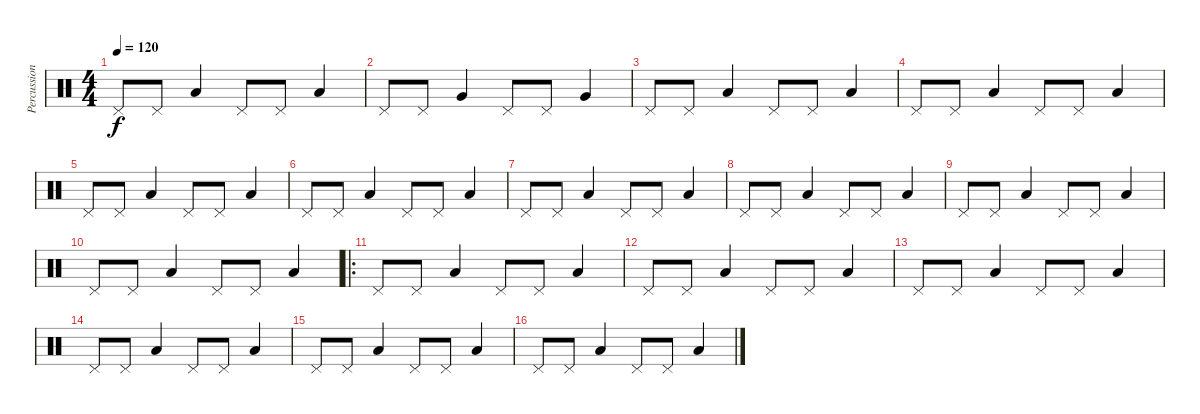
\track ("Percussions" "Percussion") {instrument percussion}
\staff {score}
\articulation defaults
\ts (4 4)
\tempo 120
\clef neutral
\ks c "Pedal Hi-Hat (hit)".8{dy f} "Pedal Hi-Hat (hit)".8 "Low Tom (hit)".4 "Pedal Hi-Hat (hit)".8 "Pedal Hi-Hat (hit)".8 "Low Tom (hit)".4
|
"Pedal Hi-Hat (hit)".8 "Pedal Hi-Hat (hit)".8 "Very Low Tom (hit)".4 "Pedal Hi-Hat (hit)".8 "Pedal Hi-Hat (hit)".8 "Very Low Tom (hit)".4 |
"Pedal Hi-Hat (hit)".8 "Pedal Hi-Hat (hit)".8 "Low Tom (hit)".4 "Pedal Hi-Hat (hit)".8 "Pedal Hi-Hat (hit)".8 "Low Tom (hit)".4 |
"Pedal Hi-Hat (hit)".8 "Pedal Hi-Hat (hit)".8 "Low Tom (hit)".4 "Pedal Hi-Hat (hit)".8 "Pedal Hi-Hat (hit)".8 "Low Tom (hit)".4 |
"Pedal Hi-Hat (hit)".8 "Pedal Hi-Hat (hit)".8 "Low Tom (hit)".4 "Pedal Hi-Hat (hit)".8 "Pedal Hi-Hat (hit)".8 "Low Tom (hit)".4 |
"Pedal Hi-Hat (hit)".8 "Pedal Hi-Hat (hit)".8 "Low Tom (hit)".4 "Pedal Hi-Hat (hit)".8 "Pedal Hi-Hat (hit)".8 "Low Tom (hit)".4 |
"Pedal Hi-Hat (hit)".8 "Pedal Hi-Hat (hit)".8 "Low Tom (hit)".4 "Pedal Hi-Hat (hit)".8 "Pedal Hi-Hat (hit)".8 "Low Tom (hit)".4 |
"Pedal Hi-Hat (hit)".8 "Pedal Hi-Hat (hit)".8 "Low Tom (hit)".4 "Pedal Hi-Hat (hit)".8 "Pedal Hi-Hat (hit)".8 "Low Tom (hit)".4 |
"Pedal Hi-Hat (hit)".8 "Pedal Hi-Hat (hit)".8 "Low Tom (hit)".4 "Pedal Hi-Hat (hit)".8 "Pedal Hi-Hat (hit)".8 "Low Tom (hit)".4 |
"Pedal Hi-Hat (hit)".8 "Pedal Hi-Hat (hit)".8 "Low Tom (hit)".4 "Pedal Hi-Hat (hit)".8 "Pedal Hi-Hat (hit)".8 "Low Tom (hit)".4 |
\ro "Pedal Hi-Hat (hit)".8 "Pedal Hi-Hat (hit)".8 "Low Tom (hit)".4 "Pedal Hi-Hat (hit)".8 "Pedal Hi-Hat (hit)".8 "Low Tom (hit)".4
|
"Pedal Hi-Hat (hit)".8 "Pedal Hi-Hat (hit)".8 "Low Tom (hit)".4 "Pedal Hi-Hat (hit)".8 "Pedal Hi-Hat (hit)".8 "Low Tom (hit)".4 |
"Pedal Hi-Hat (hit)".8 "Pedal Hi-Hat (hit)".8 "Low Tom (hit)".4 "Pedal Hi-Hat (hit)".8 "Pedal Hi-Hat (hit)".8 "Low Tom (hit)".4 |
"Pedal Hi-Hat (hit)".8 "Pedal Hi-Hat (hit)".8 "Low Tom (hit)".4 "Pedal Hi-Hat (hit)".8 "Pedal Hi-Hat (hit)".8 "Low Tom (hit)".4 |
"Pedal Hi-Hat (hit)".8 "Pedal Hi-Hat (hit)".8 "Low Tom (hit)".4 "Pedal Hi-Hat (hit)".8 "Pedal Hi-Hat (hit)".8 "Low Tom (hit)".4 |
"Pedal Hi-Hat (hit)".8 "Pedal Hi-Hat (hit)".8 "Low Tom (hit)".4 "Pedal Hi-Hat (hit)".8 "Pedal Hi-Hat (hit)".8 "Low Tom (hit)".4
